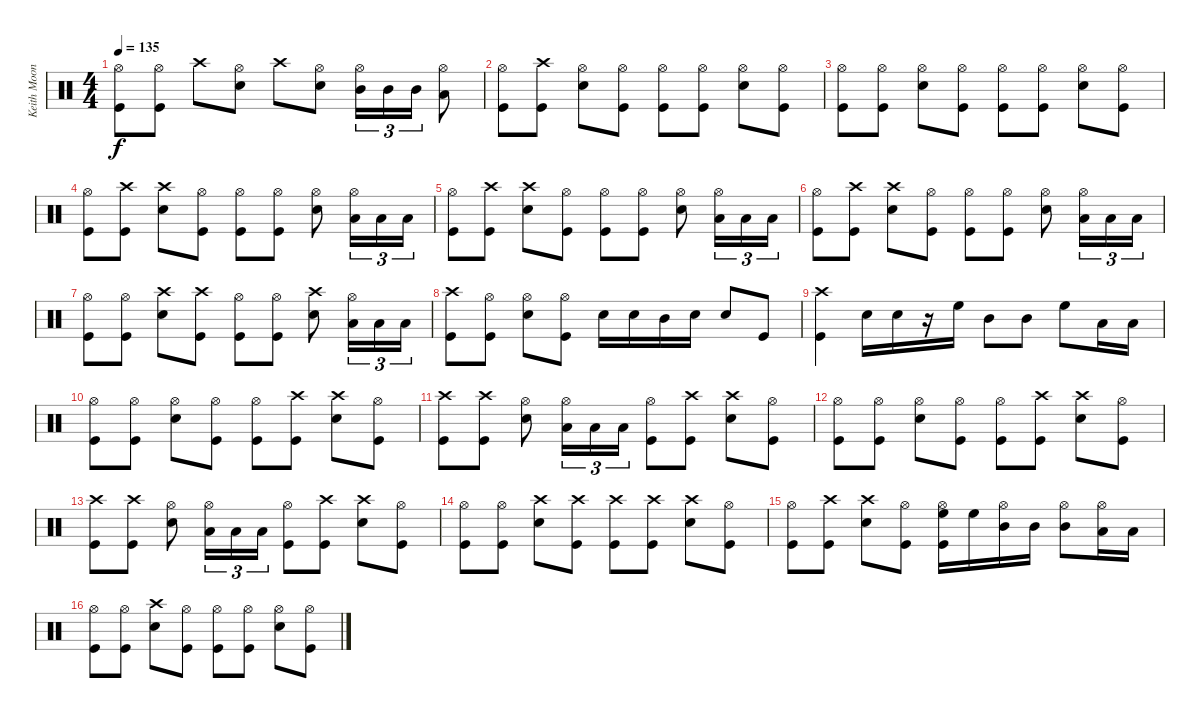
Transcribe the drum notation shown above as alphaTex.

\track ("Keith Moon" "Keith Moon") {instrument percussion}
\staff {score}
\articulation defaults
\ts (4 4)
\tempo 135
\clef neutral
\ks c
("Hi-Hat (open)" "Kick (hit)").8{dy f} ("Hi-Hat (open)" "Kick (hit)").8 "Crash high (hit)".8 ("Hi-Hat (open)" "Snare (hit) 2").8 "Crash high (hit)".8 ("Hi-Hat (open)" "Snare (hit) 2").8 ("Hi-Hat (open)" "Mid Tom (hit)").16{tu (3 2)} "Mid Tom (hit)".16{tu (3 2)} "Mid Tom (hit)".16{tu (3 2)} ("Hi-Hat (open)" "Low Tom (hit)").8 |
("Hi-Hat (open)" "Kick (hit)").8 ("Crash high (hit)" "Kick (hit)").8 ("Hi-Hat (open)" "Snare (hit) 2").8 ("Hi-Hat (open)" "Kick (hit)").8 ("Hi-Hat (open)" "Kick (hit)").8 ("Hi-Hat (open)" "Kick (hit)").8 ("Hi-Hat (open)" "Snare (hit) 2").8 ("Hi-Hat (open)" "Kick (hit)").8 |
("Hi-Hat (open)" "Kick (hit)").8 ("Hi-Hat (open)" "Kick (hit)").8 ("Hi-Hat (open)" "Snare (hit) 2").8 ("Hi-Hat (open)" "Kick (hit)").8 ("Hi-Hat (open)" "Kick (hit)").8 ("Hi-Hat (open)" "Kick (hit)").8 ("Hi-Hat (open)" "Snare (hit) 2").8 ("Hi-Hat (open)" "Kick (hit)").8 |
("Hi-Hat (open)" "Kick (hit)").8 ("Crash high (hit)" "Kick (hit)").8 ("Crash high (hit)" "Snare (hit) 2").8 ("Hi-Hat (open)" "Kick (hit)").8 ("Hi-Hat (open)" "Kick (hit)").8 ("Hi-Hat (open)" "Kick (hit)").8 ("Hi-Hat (open)" "Snare (hit) 2").8 ("Hi-Hat (open)" "Low Tom (hit)").16{tu (3 2)} "Low Tom (hit)".16{tu (3 2)} "Low Tom (hit)".16{tu (3 2)} |
("Hi-Hat (open)" "Kick (hit)").8 ("Crash high (hit)" "Kick (hit)").8 ("Crash high (hit)" "Snare (hit) 2").8 ("Hi-Hat (open)" "Kick (hit)").8 ("Hi-Hat (open)" "Kick (hit)").8 ("Hi-Hat (open)" "Kick (hit)").8 ("Hi-Hat (open)" "Snare (hit) 2").8 ("Hi-Hat (open)" "Low Tom (hit)").16{tu (3 2)} "Low Tom (hit)".16{tu (3 2)} "Low Tom (hit)".16{tu (3 2)} |
("Hi-Hat (open)" "Kick (hit)").8 ("Crash high (hit)" "Kick (hit)").8 ("Crash high (hit)" "Snare (hit) 2").8 ("Hi-Hat (open)" "Kick (hit)").8 ("Hi-Hat (open)" "Kick (hit)").8 ("Hi-Hat (open)" "Kick (hit)").8 ("Hi-Hat (open)" "Snare (hit) 2").8 ("Hi-Hat (open)" "Low Tom (hit)").16{tu (3 2)} "Low Tom (hit)".16{tu (3 2)} "Low Tom (hit)".16{tu (3 2)} |
("Hi-Hat (open)" "Kick (hit)").8 ("Hi-Hat (open)" "Kick (hit)").8 ("Crash high (hit)" "Snare (hit) 2").8 ("Crash high (hit)" "Kick (hit)").8 ("Hi-Hat (open)" "Kick (hit)").8 ("Hi-Hat (open)" "Kick (hit)").8 ("Crash high (hit)" "Snare (hit) 2").8 ("Hi-Hat (open)" "Low Tom (hit)").16{tu (3 2)} "Low Tom (hit)".16{tu (3 2)} "Low Tom (hit)".16{tu (3 2)} |
("Crash high (hit)" "Kick (hit)").8 ("Hi-Hat (open)" "Kick (hit)").8 ("Hi-Hat (open)" "Snare (hit) 2").8 ("Hi-Hat (open)" "Kick (hit)").8 "Snare (hit) 2".16 "Snare (hit) 2".16 "Mid Tom (hit)".16 "Snare (hit) 2".16 "Snare (hit) 2".8 "Kick (hit)".8 |
("Crash high (hit)" "Kick (hit)").4 "Snare (hit) 2".16 "Snare (hit) 2".16 r.16 "High Floor Tom (hit)".16 "Mid Tom (hit)".8 "Mid Tom (hit)".8 "High Floor Tom (hit)".8 "Low Tom (hit)".16 "Low Tom (hit)".16 |
("Hi-Hat (open)" "Kick (hit)").8 ("Hi-Hat (open)" "Kick (hit)").8 ("Hi-Hat (open)" "Snare (hit) 2").8 ("Hi-Hat (open)" "Kick (hit)").8 ("Hi-Hat (open)" "Kick (hit)").8 ("Crash high (hit)" "Kick (hit)").8 ("Crash high (hit)" "Snare (hit) 2").8 ("Hi-Hat (open)" "Kick (hit)").8 |
("Crash high (hit)" "Kick (hit)").8 ("Crash high (hit)" "Kick (hit)").8 ("Hi-Hat (open)" "Snare (hit) 2").8 ("Hi-Hat (open)" "Low Tom (hit)").16{tu (3 2)} "Low Tom (hit)".16{tu (3 2)} "Low Tom (hit)".16{tu (3 2)} ("Hi-Hat (open)" "Kick (hit)").8 ("Crash high (hit)" "Kick (hit)").8 ("Crash high (hit)" "Snare (hit) 2").8 ("Hi-Hat (open)" "Kick (hit)").8 |
("Hi-Hat (open)" "Kick (hit)").8 ("Hi-Hat (open)" "Kick (hit)").8 ("Hi-Hat (open)" "Snare (hit) 2").8 ("Hi-Hat (open)" "Kick (hit)").8 ("Hi-Hat (open)" "Kick (hit)").8 ("Crash high (hit)" "Kick (hit)").8 ("Crash high (hit)" "Snare (hit) 2").8 ("Hi-Hat (open)" "Kick (hit)").8 |
("Crash high (hit)" "Kick (hit)").8 ("Crash high (hit)" "Kick (hit)").8 ("Hi-Hat (open)" "Snare (hit) 2").8 ("Hi-Hat (open)" "Low Tom (hit)").16{tu (3 2)} "Low Tom (hit)".16{tu (3 2)} "Low Tom (hit)".16{tu (3 2)} ("Hi-Hat (open)" "Kick (hit)").8 ("Crash high (hit)" "Kick (hit)").8 ("Crash high (hit)" "Snare (hit) 2").8 ("Hi-Hat (open)" "Kick (hit)").8 |
("Hi-Hat (open)" "Kick (hit)").8 ("Hi-Hat (open)" "Kick (hit)").8 ("Crash high (hit)" "Snare (hit) 2").8 ("Crash high (hit)" "Kick (hit)").8 ("Crash high (hit)" "Kick (hit)").8 ("Crash high (hit)" "Kick (hit)").8 ("Crash high (hit)" "Snare (hit) 2").8 ("Hi-Hat (open)" "Kick (hit)").8 |
("Hi-Hat (open)" "Kick (hit)").8 ("Crash high (hit)" "Kick (hit)").8 ("Crash high (hit)" "Snare (hit) 2").8 ("Hi-Hat (open)" "Kick (hit)").8 ("Hi-Hat (open)" "High Floor Tom (hit)" "Kick (hit)").16 "High Floor Tom (hit)".16 ("Hi-Hat (open)" "Mid Tom (hit)").16 "Mid Tom (hit)".16 ("Hi-Hat (open)" "Mid Tom (hit)").8 ("Hi-Hat (open)" "Low Tom (hit)").16 "Low Tom (hit)".16 |
("Hi-Hat (open)" "Kick (hit)").8 ("Hi-Hat (open)" "Kick (hit)").8 ("Crash high (hit)" "Snare (hit) 2").8 ("Hi-Hat (open)" "Kick (hit)").8 ("Hi-Hat (open)" "Kick (hit)").8 ("Hi-Hat (open)" "Kick (hit)").8 ("Hi-Hat (open)" "Snare (hit) 2").8 ("Hi-Hat (open)" "Kick (hit)").8
